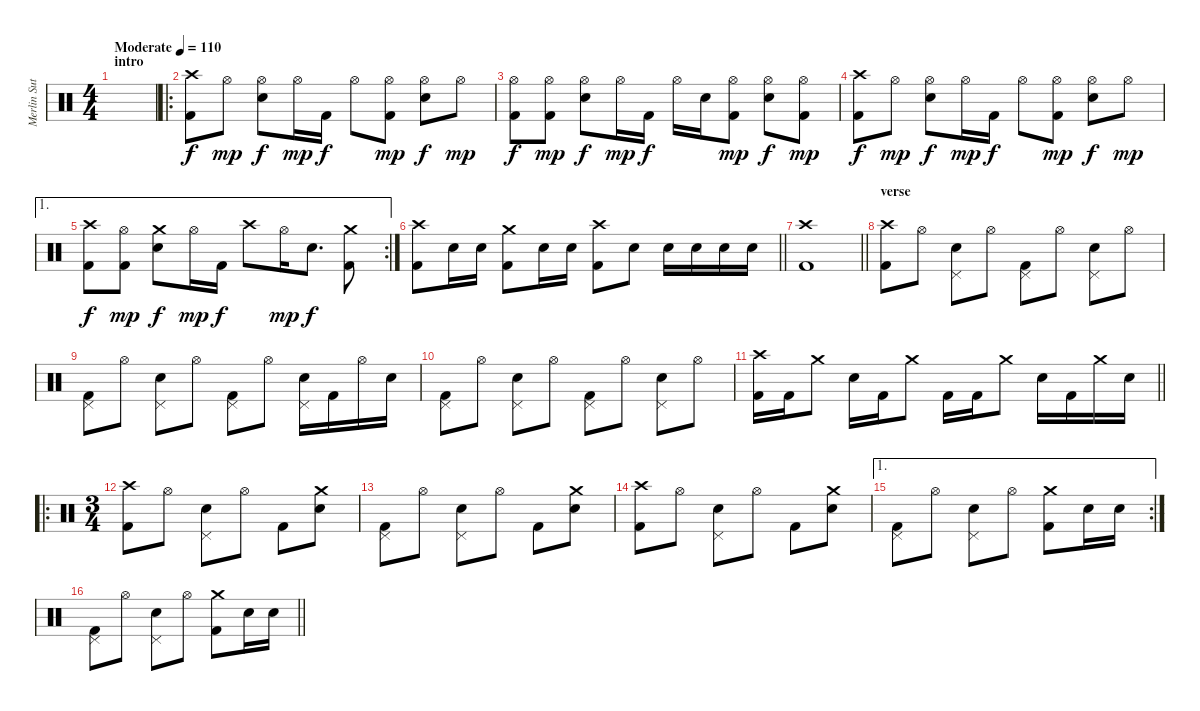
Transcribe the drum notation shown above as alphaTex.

\track ("Merlin Sutter" "Merlin Sut") {instrument percussion}
\staff {score}
\articulation defaults
\ts (4 4)
\section ("" "intro")
\tempo (110 "Moderate")
\clef neutral
\ks c
|
\ro
("Crash high (hit)" "Kick (hit) 2").8 "Hi-Hat (open)".8{dy mp} ("Hi-Hat (open)" "Snare (hit) 2").8{dy f} "Hi-Hat (open)".16{dy mp} "Kick (hit) 2".16{dy f} "Hi-Hat (open)".8 ("Hi-Hat (open)" "Kick (hit) 2").8{dy mp} ("Hi-Hat (open)" "Snare (hit) 2").8{dy f} "Hi-Hat (open)".8{dy mp} |
("Hi-Hat (open)" "Kick (hit) 2").8{dy f} ("Hi-Hat (open)" "Kick (hit) 2").8{dy mp} ("Hi-Hat (open)" "Snare (hit) 2").8{dy f} "Hi-Hat (open)".16{dy mp} "Kick (hit) 2".16{dy f} "Hi-Hat (open)".16 "Snare (hit) 2".16 ("Hi-Hat (open)" "Kick (hit) 2").8{dy mp} ("Hi-Hat (open)" "Snare (hit) 2").8{dy f} ("Hi-Hat (open)" "Kick (hit) 2").8{dy mp} |
("Crash high (hit)" "Kick (hit) 2").8{dy f} "Hi-Hat (open)".8{dy mp} ("Hi-Hat (open)" "Snare (hit) 2").8{dy f} "Hi-Hat (open)".16{dy mp} "Kick (hit) 2".16{dy f} "Hi-Hat (open)".8 ("Hi-Hat (open)" "Kick (hit) 2").8{dy mp} ("Hi-Hat (open)" "Snare (hit) 2").8{dy f} "Hi-Hat (open)".8{dy mp} |
\ae 1
\rc 2
("Crash high (hit)" "Kick (hit) 2").8{dy f} ("Hi-Hat (open)" "Kick (hit) 2").8{dy mp} ("Crash medium (hit)" "Snare (hit) 2").8{dy f} "Hi-Hat (open)".16{dy mp} "Kick (hit) 2".16{dy f} "Crash high (hit)".8 "Hi-Hat (open)".16{dy mp} "Snare (hit) 2".8{d dy f} ("Crash medium (hit)" "Kick (hit) 2").8 |
\barLineRight lightlight
("Crash high (hit)" "Kick (hit) 2").8 "Snare (hit) 2".16 "Snare (hit) 2".16 ("Crash medium (hit)" "Kick (hit) 2").8 "Snare (hit) 2".16 "Snare (hit) 2".16 ("Crash high (hit)" "Kick (hit) 2").8 "Snare (hit) 2".8 "Snare (hit) 2".16 "Snare (hit) 2".16 "Snare (hit) 2".16 "Snare (hit) 2".16 |
\section ("" "")
\barLineRight lightlight
("Crash high (hit)" "Kick (hit) 2").1 |
\section ("" "verse")
("Crash high (hit)" "Kick (hit) 2").8 "Hi-Hat (open)".8 ("Pedal Hi-Hat (hit)" "Snare (hit) 2").8 "Hi-Hat (open)".8 ("Pedal Hi-Hat (hit)" "Kick (hit) 2").8 "Hi-Hat (open)".8 ("Pedal Hi-Hat (hit)" "Snare (hit) 2").8 "Hi-Hat (open)".8 |
("Pedal Hi-Hat (hit)" "Kick (hit) 2").8 "Hi-Hat (open)".8 ("Pedal Hi-Hat (hit)" "Snare (hit) 2").8 "Hi-Hat (open)".8 ("Pedal Hi-Hat (hit)" "Kick (hit) 2").8 "Hi-Hat (open)".8 ("Pedal Hi-Hat (hit)" "Snare (hit) 2").16 "Kick (hit) 2".16 "Hi-Hat (open)".16 "Snare (hit) 2".16 |
("Pedal Hi-Hat (hit)" "Kick (hit) 2").8 "Hi-Hat (open)".8 ("Pedal Hi-Hat (hit)" "Snare (hit) 2").8 "Hi-Hat (open)".8 ("Pedal Hi-Hat (hit)" "Kick (hit) 2").8 "Hi-Hat (open)".8 ("Pedal Hi-Hat (hit)" "Snare (hit) 2").8 "Hi-Hat (open)".8 |
\barLineRight lightlight
("Crash high (hit)" "Kick (hit) 2").16 "Kick (hit) 2".16 "Crash medium (hit)".8 "Snare (hit) 2".16 "Kick (hit) 2".16 "Crash medium (hit)".8 "Kick (hit) 2".16 "Kick (hit) 2".16 "Crash medium (hit)".8 "Snare (hit) 2".16 "Kick (hit) 2".16 "Crash medium (hit)".16 "Snare (hit) 2".16 |
\ro
\ts (3 4)
\section ("" "")
("Crash high (hit)" "Kick (hit) 2").8 "Hi-Hat (open)".8 ("Pedal Hi-Hat (hit)" "Snare (hit) 2").8 "Hi-Hat (open)".8 "Kick (hit) 2".8 ("Crash medium (hit)" "Snare (hit) 2").8 |
("Pedal Hi-Hat (hit)" "Kick (hit) 2").8 "Hi-Hat (open)".8 ("Pedal Hi-Hat (hit)" "Snare (hit) 2").8 "Hi-Hat (open)".8 "Kick (hit) 2".8 ("Crash medium (hit)" "Snare (hit) 2").8 |
("Crash high (hit)" "Kick (hit) 2").8 "Hi-Hat (open)".8 ("Pedal Hi-Hat (hit)" "Snare (hit) 2").8 "Hi-Hat (open)".8 "Kick (hit) 2".8 ("Crash medium (hit)" "Snare (hit) 2").8 |
\ae 1
\rc 2
("Pedal Hi-Hat (hit)" "Kick (hit) 2").8 "Hi-Hat (open)".8 ("Pedal Hi-Hat (hit)" "Snare (hit) 2").8 "Hi-Hat (open)".8 ("Crash medium (hit)" "Kick (hit) 2").8 "Snare (hit) 2".16 "Snare (hit) 2".16 |
\barLineRight lightlight
("Pedal Hi-Hat (hit)" "Kick (hit) 2").8 "Hi-Hat (open)".8 ("Pedal Hi-Hat (hit)" "Snare (hit) 2").8 "Hi-Hat (open)".8 ("Crash medium (hit)" "Kick (hit) 2").8 "Snare (hit) 2".16 "Snare (hit) 2".16
